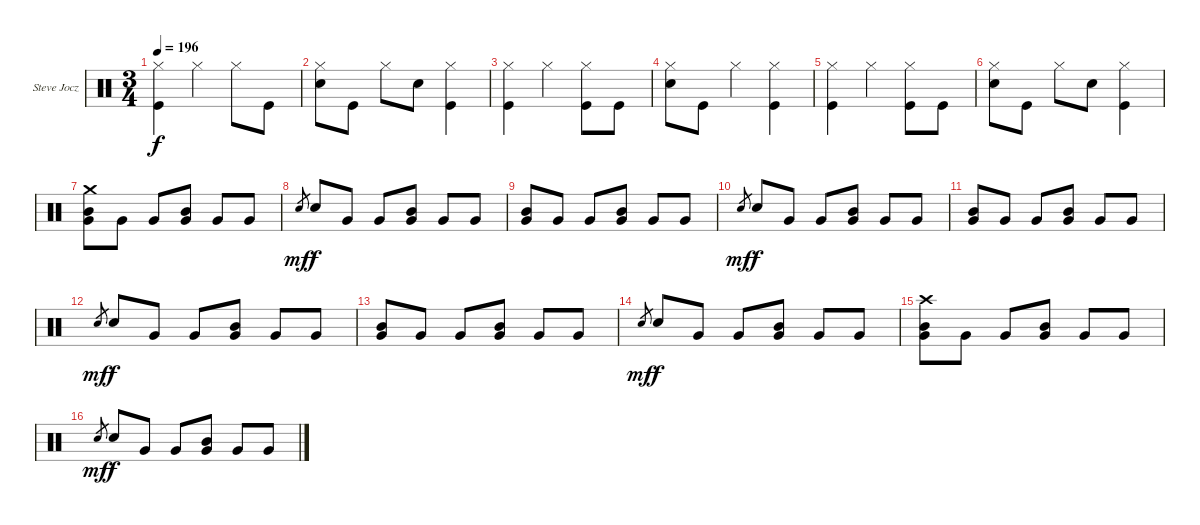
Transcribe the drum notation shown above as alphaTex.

\defaultSystemsLayout 4
\bracketExtendMode groupsimilarinstruments
\firstSystemTrackNameOrientation horizontal
\otherSystemsTrackNameOrientation horizontal
\track ("Steve Jocz " "Steve Jocz") {instrument percussion}
\staff {score}
\articulation defaults
\ts (3 4)
\tempo 196
\clef neutral
\ks c
("Hi-Hat (closed)" "Kick (hit)").4{dy f} "Hi-Hat (closed)".4 "Hi-Hat (closed)".8 "Kick (hit)".8 |
("Hi-Hat (closed)" "Snare (hit) 2").8 "Kick (hit)".8 "Hi-Hat (closed)".8 "Snare (hit) 2".8 ("Hi-Hat (closed)" "Kick (hit)").4 |
("Hi-Hat (closed)" "Kick (hit)").4 "Hi-Hat (closed)".4 ("Hi-Hat (closed)" "Kick (hit)").8 "Kick (hit)".8 |
("Hi-Hat (closed)" "Snare (hit) 2").8 "Kick (hit)".8 "Hi-Hat (closed)".4 ("Hi-Hat (closed)" "Kick (hit)").4 |
("Hi-Hat (closed)" "Kick (hit)").4 "Hi-Hat (closed)".4 ("Hi-Hat (closed)" "Kick (hit)").8 "Kick (hit)".8 |
("Hi-Hat (closed)" "Snare (hit) 2").8 "Kick (hit)".8 "Hi-Hat (closed)".8 "Snare (hit) 2".8 ("Hi-Hat (closed)" "Kick (hit)").4 |
("Crash medium (hit)" "Mid Tom (hit)" "Very Low Tom (hit)").8 "Very Low Tom (hit)".8 "Very Low Tom (hit)".8 ("Mid Tom (hit)" "Very Low Tom (hit)").8 "Very Low Tom (hit)".8 "Very Low Tom (hit)".8 |
"Snare (hit) 2".8{gr dy mf} "Snare (hit) 2".8{dy f} "Very Low Tom (hit)".8 "Very Low Tom (hit)".8 ("Mid Tom (hit)" "Very Low Tom (hit)").8 "Very Low Tom (hit)".8 "Very Low Tom (hit)".8 |
("Mid Tom (hit)" "Very Low Tom (hit)").8 "Very Low Tom (hit)".8 "Very Low Tom (hit)".8 ("Mid Tom (hit)" "Very Low Tom (hit)").8 "Very Low Tom (hit)".8 "Very Low Tom (hit)".8 |
"Snare (hit) 2".8{gr dy mf} "Snare (hit) 2".8{dy f} "Very Low Tom (hit)".8 "Very Low Tom (hit)".8 ("Mid Tom (hit)" "Very Low Tom (hit)").8 "Very Low Tom (hit)".8 "Very Low Tom (hit)".8 |
("Mid Tom (hit)" "Very Low Tom (hit)").8 "Very Low Tom (hit)".8 "Very Low Tom (hit)".8 ("Mid Tom (hit)" "Very Low Tom (hit)").8 "Very Low Tom (hit)".8 "Very Low Tom (hit)".8 |
"Snare (hit) 2".8{gr dy mf} "Snare (hit) 2".8{dy f} "Very Low Tom (hit)".8 "Very Low Tom (hit)".8 ("Mid Tom (hit)" "Very Low Tom (hit)").8 "Very Low Tom (hit)".8 "Very Low Tom (hit)".8 |
("Mid Tom (hit)" "Very Low Tom (hit)").8 "Very Low Tom (hit)".8 "Very Low Tom (hit)".8 ("Mid Tom (hit)" "Very Low Tom (hit)").8 "Very Low Tom (hit)".8 "Very Low Tom (hit)".8 |
"Snare (hit) 2".8{gr dy mf} "Snare (hit) 2".8{dy f} "Very Low Tom (hit)".8 "Very Low Tom (hit)".8 ("Mid Tom (hit)" "Very Low Tom (hit)").8 "Very Low Tom (hit)".8 "Very Low Tom (hit)".8 |
("Crash high (hit)" "Mid Tom (hit)" "Very Low Tom (hit)").8 "Very Low Tom (hit)".8 "Very Low Tom (hit)".8 ("Mid Tom (hit)" "Very Low Tom (hit)").8 "Very Low Tom (hit)".8 "Very Low Tom (hit)".8 |
"Snare (hit) 2".8{gr dy mf} "Snare (hit) 2".8{dy f} "Very Low Tom (hit)".8 "Very Low Tom (hit)".8 ("Mid Tom (hit)" "Very Low Tom (hit)").8 "Very Low Tom (hit)".8 "Very Low Tom (hit)".8
